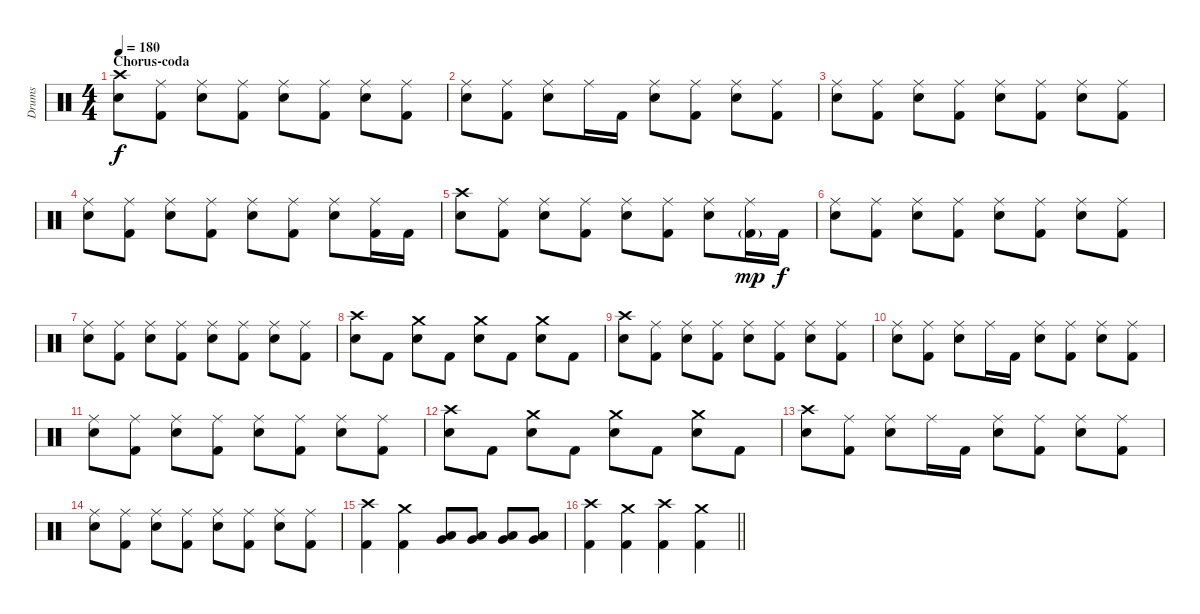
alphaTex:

\track ("Drums" "Drums") {instrument percussion}
\staff {score}
\articulation defaults
\ts (4 4)
\section ("" "Chorus-coda")
\tempo 180
\clef neutral
\ks c
("Crash high (hit)" "Electric Snare (hit)").8{dy f} ("Ride (middle)" "Kick (hit) 2").8 ("Ride (middle)" "Electric Snare (hit)").8 ("Ride (middle)" "Kick (hit) 2").8 ("Ride (middle)" "Electric Snare (hit)").8 ("Ride (middle)" "Kick (hit) 2").8 ("Ride (middle)" "Electric Snare (hit)").8 ("Ride (middle)" "Kick (hit) 2").8 |
("Ride (middle)" "Electric Snare (hit)").8 ("Ride (middle)" "Kick (hit) 2").8 ("Ride (middle)" "Electric Snare (hit)").8 "Ride (middle)".16 "Kick (hit) 2".16 ("Ride (middle)" "Electric Snare (hit)").8 ("Ride (middle)" "Kick (hit) 2").8 ("Ride (middle)" "Electric Snare (hit)").8 ("Ride (middle)" "Kick (hit) 2").8 |
("Ride (middle)" "Electric Snare (hit)").8 ("Ride (middle)" "Kick (hit) 2").8 ("Ride (middle)" "Electric Snare (hit)").8 ("Ride (middle)" "Kick (hit) 2").8 ("Ride (middle)" "Electric Snare (hit)").8 ("Ride (middle)" "Kick (hit) 2").8 ("Ride (middle)" "Electric Snare (hit)").8 ("Ride (middle)" "Kick (hit) 2").8 |
("Ride (middle)" "Electric Snare (hit)").8 ("Ride (middle)" "Kick (hit) 2").8 ("Ride (middle)" "Electric Snare (hit)").8 ("Ride (middle)" "Kick (hit) 2").8 ("Ride (middle)" "Electric Snare (hit)").8 ("Ride (middle)" "Kick (hit) 2").8 ("Ride (middle)" "Electric Snare (hit)").8 ("Ride (middle)" "Kick (hit) 2").16 "Kick (hit) 2".16 |
("Crash high (hit)" "Electric Snare (hit)").8 ("Ride (middle)" "Kick (hit) 2").8 ("Ride (middle)" "Electric Snare (hit)").8 ("Ride (middle)" "Kick (hit) 2").8 ("Ride (middle)" "Electric Snare (hit)").8 ("Ride (middle)" "Kick (hit) 2").8 ("Ride (middle)" "Electric Snare (hit)").8 ("Ride (middle)" "Kick (hit) 2"{g}).16{dy mp} "Kick (hit) 2".16{dy f} |
("Ride (middle)" "Electric Snare (hit)").8 ("Ride (middle)" "Kick (hit) 2").8 ("Ride (middle)" "Electric Snare (hit)").8 ("Ride (middle)" "Kick (hit) 2").8 ("Ride (middle)" "Electric Snare (hit)").8 ("Ride (middle)" "Kick (hit) 2").8 ("Ride (middle)" "Electric Snare (hit)").8 ("Ride (middle)" "Kick (hit) 2").8 |
("Ride (middle)" "Electric Snare (hit)").8 ("Ride (middle)" "Kick (hit) 2").8 ("Ride (middle)" "Electric Snare (hit)").8 ("Ride (middle)" "Kick (hit) 2").8 ("Ride (middle)" "Electric Snare (hit)").8 ("Ride (middle)" "Kick (hit) 2").8 ("Ride (middle)" "Electric Snare (hit)").8 ("Ride (middle)" "Kick (hit) 2").8 |
("Crash high (hit)" "Electric Snare (hit)").8 "Kick (hit) 2".8 ("Crash medium (hit)" "Electric Snare (hit)").8 "Kick (hit) 2".8 ("Crash medium (hit)" "Electric Snare (hit)").8 "Kick (hit) 2".8 ("Crash medium (hit)" "Electric Snare (hit)").8 "Kick (hit) 2".8 |
("Crash high (hit)" "Electric Snare (hit)").8 ("Ride (middle)" "Kick (hit) 2").8 ("Ride (middle)" "Electric Snare (hit)").8 ("Ride (middle)" "Kick (hit) 2").8 ("Ride (middle)" "Electric Snare (hit)").8 ("Ride (middle)" "Kick (hit) 2").8 ("Ride (middle)" "Electric Snare (hit)").8 ("Ride (middle)" "Kick (hit) 2").8 |
("Ride (middle)" "Electric Snare (hit)").8 ("Ride (middle)" "Kick (hit) 2").8 ("Ride (middle)" "Electric Snare (hit)").8 "Ride (middle)".16 "Kick (hit) 2".16 ("Ride (middle)" "Electric Snare (hit)").8 ("Ride (middle)" "Kick (hit) 2").8 ("Ride (middle)" "Electric Snare (hit)").8 ("Ride (middle)" "Kick (hit) 2").8 |
("Ride (middle)" "Electric Snare (hit)").8 ("Ride (middle)" "Kick (hit) 2").8 ("Ride (middle)" "Electric Snare (hit)").8 ("Ride (middle)" "Kick (hit) 2").8 ("Ride (middle)" "Electric Snare (hit)").8 ("Ride (middle)" "Kick (hit) 2").8 ("Ride (middle)" "Electric Snare (hit)").8 ("Ride (middle)" "Kick (hit) 2").8 |
("Crash high (hit)" "Electric Snare (hit)").8 "Kick (hit) 2".8 ("Crash medium (hit)" "Electric Snare (hit)").8 "Kick (hit) 2".8 ("Crash medium (hit)" "Electric Snare (hit)").8 "Kick (hit) 2".8 ("Crash medium (hit)" "Electric Snare (hit)").8 "Kick (hit) 2".8 |
("Crash high (hit)" "Electric Snare (hit)").8 ("Ride (middle)" "Kick (hit) 2").8 ("Ride (middle)" "Electric Snare (hit)").8 "Ride (middle)".16 "Kick (hit) 2".16 ("Ride (middle)" "Electric Snare (hit)").8 ("Ride (middle)" "Kick (hit) 2").8 ("Ride (middle)" "Electric Snare (hit)").8 ("Ride (middle)" "Kick (hit) 2").8 |
("Ride (middle)" "Electric Snare (hit)").8 ("Ride (middle)" "Kick (hit) 2").8 ("Ride (middle)" "Electric Snare (hit)").8 ("Ride (middle)" "Kick (hit) 2").8 ("Ride (middle)" "Electric Snare (hit)").8 ("Ride (middle)" "Kick (hit) 2").8 ("Ride (middle)" "Electric Snare (hit)").8 ("Ride (middle)" "Kick (hit) 2").8 |
("Crash high (hit)" "Kick (hit) 2").4 ("Crash medium (hit)" "Kick (hit) 2").4 ("Low Tom (hit)" "Very Low Tom (hit)").8 ("Low Tom (hit)" "Very Low Tom (hit)").8 ("Low Tom (hit)" "Very Low Tom (hit)").8 ("Low Tom (hit)" "Very Low Tom (hit)").8 |
\barLineRight lightlight
("Crash high (hit)" "Kick (hit) 2").4 ("Crash medium (hit)" "Kick (hit) 2").4 ("Crash high (hit)" "Kick (hit) 2").4 ("Crash medium (hit)" "Kick (hit) 2").4
